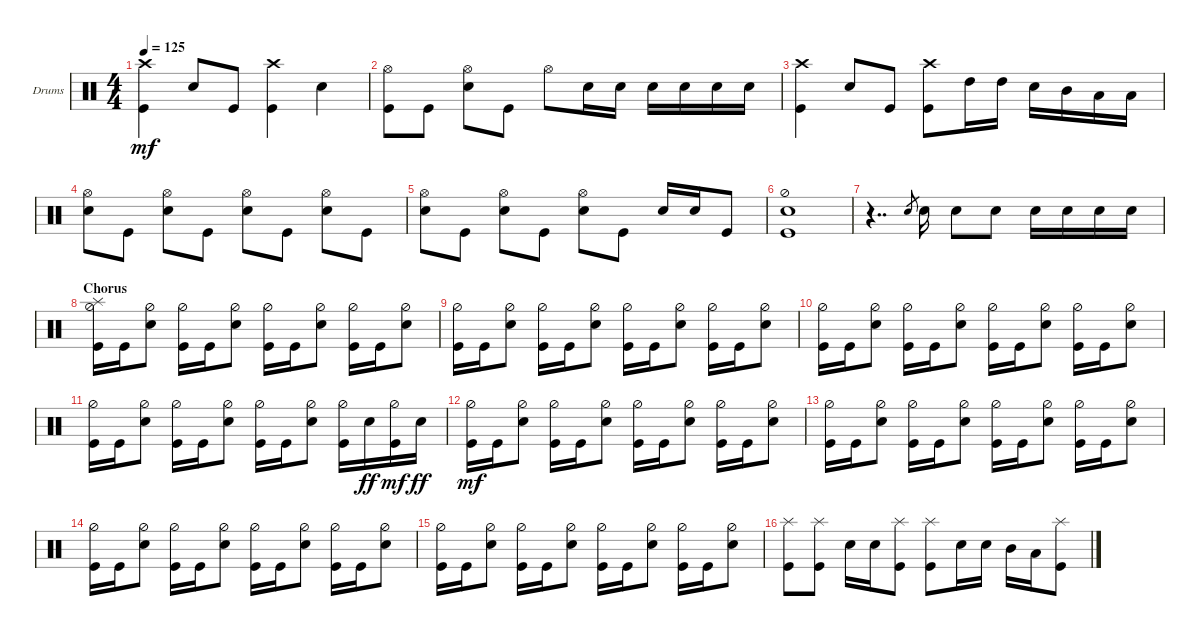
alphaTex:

\defaultSystemsLayout 4
\bracketExtendMode groupsimilarinstruments
\firstSystemTrackNameOrientation horizontal
\otherSystemsTrackNameOrientation horizontal
\track ("Drumkit" "Drums") {instrument percussion}
\staff {score}
\articulation defaults
\ts (4 4)
\tempo 125
\clef neutral
\ks c
("Kick (hit)" "Crash high (hit)").4{dy mf} "Snare (hit) 2".8 "Kick (hit)".8 ("Kick (hit)" "Crash high (hit)").4 "Snare (hit) 2".4 |
("Kick (hit)" "Hi-Hat (open)").8 "Kick (hit)".8 ("Snare (hit) 2" "Hi-Hat (open)").8 "Kick (hit)".8 "Hi-Hat (open)".8 "Snare (hit) 2".16 "Snare (hit) 2".16 "Snare (hit) 2".16 "Snare (hit) 2".16 "Snare (hit) 2".16 "Snare (hit) 2".16 |
("Kick (hit)" "Crash high (hit)").4 "Snare (hit) 2".8 "Kick (hit)".8 ("Kick (hit)" "Crash high (hit)").8 "High Tom (hit)".16 "High Tom (hit)".16 "Snare (hit) 2".16 "Mid Tom (hit)".16 "Low Tom (hit)".16 "Low Tom (hit)".16 |
("Snare (hit) 2" "Hi-Hat (open)").8 "Kick (hit)".8 ("Snare (hit) 2" "Hi-Hat (open)").8 "Kick (hit)".8 ("Snare (hit) 2" "Hi-Hat (open)").8 "Kick (hit)".8 ("Snare (hit) 2" "Hi-Hat (open)").8 "Kick (hit)".8 |
("Snare (hit) 2" "Hi-Hat (open)").8 "Kick (hit)".8 ("Snare (hit) 2" "Hi-Hat (open)").8 "Kick (hit)".8 ("Snare (hit) 2" "Hi-Hat (open)").8 "Kick (hit)".8 "Snare (hit) 2".16 "Snare (hit) 2".16 "Kick (hit)".8 |
("Snare (hit) 2" "Kick (hit)" "Hi-Hat (half)").1 |
r.4{dd} "Snare (hit) 2".8{gr} "Snare (hit) 2".16 "Snare (hit) 2".8 "Snare (hit) 2".8 "Snare (hit) 2".16 "Snare (hit) 2".16 "Snare (hit) 2".16 "Snare (hit) 2".16 |
\section ("" "Chorus")
("Hi-Hat (half)" "Kick (hit)" "Splash (hit)").16 "Kick (hit)".16 ("Hi-Hat (half)" "Snare (hit) 2").8 ("Hi-Hat (half)" "Kick (hit)").16 "Kick (hit)".16 ("Hi-Hat (half)" "Snare (hit) 2").8 ("Hi-Hat (half)" "Kick (hit)").16 "Kick (hit)".16 ("Hi-Hat (half)" "Snare (hit) 2").8 ("Hi-Hat (half)" "Kick (hit)").16 "Kick (hit)".16 ("Hi-Hat (half)" "Snare (hit) 2").8 |
("Hi-Hat (half)" "Kick (hit)").16 "Kick (hit)".16 ("Hi-Hat (half)" "Snare (hit) 2").8 ("Hi-Hat (half)" "Kick (hit)").16 "Kick (hit)".16 ("Hi-Hat (half)" "Snare (hit) 2").8 ("Hi-Hat (half)" "Kick (hit)").16 "Kick (hit)".16 ("Hi-Hat (half)" "Snare (hit) 2").8 ("Hi-Hat (half)" "Kick (hit)").16 "Kick (hit)".16 ("Hi-Hat (half)" "Snare (hit) 2").8 |
("Hi-Hat (half)" "Kick (hit)").16 "Kick (hit)".16 ("Hi-Hat (half)" "Snare (hit) 2").8 ("Hi-Hat (half)" "Kick (hit)").16 "Kick (hit)".16 ("Hi-Hat (half)" "Snare (hit) 2").8 ("Hi-Hat (half)" "Kick (hit)").16 "Kick (hit)".16 ("Hi-Hat (half)" "Snare (hit) 2").8 ("Hi-Hat (half)" "Kick (hit)").16 "Kick (hit)".16 ("Hi-Hat (half)" "Snare (hit) 2").8 |
("Hi-Hat (half)" "Kick (hit)").16 "Kick (hit)".16 ("Hi-Hat (half)" "Snare (hit) 2").8 ("Hi-Hat (half)" "Kick (hit)").16 "Kick (hit)".16 ("Hi-Hat (half)" "Snare (hit) 2").8 ("Hi-Hat (half)" "Kick (hit)").16 "Kick (hit)".16 ("Hi-Hat (half)" "Snare (hit) 2").8 ("Hi-Hat (half)" "Kick (hit)").16 "Snare (hit) 2".16{dy ff} ("Hi-Hat (half)" "Kick (hit)").16{dy mf} "Snare (hit) 2".16{dy ff} |
("Hi-Hat (half)" "Kick (hit)").16{dy mf} "Kick (hit)".16 ("Hi-Hat (half)" "Snare (hit) 2").8 ("Hi-Hat (half)" "Kick (hit)").16 "Kick (hit)".16 ("Hi-Hat (half)" "Snare (hit) 2").8 ("Hi-Hat (half)" "Kick (hit)").16 "Kick (hit)".16 ("Hi-Hat (half)" "Snare (hit) 2").8 ("Hi-Hat (half)" "Kick (hit)").16 "Kick (hit)".16 ("Hi-Hat (half)" "Snare (hit) 2").8 |
("Hi-Hat (half)" "Kick (hit)").16 "Kick (hit)".16 ("Hi-Hat (half)" "Snare (hit) 2").8 ("Hi-Hat (half)" "Kick (hit)").16 "Kick (hit)".16 ("Hi-Hat (half)" "Snare (hit) 2").8 ("Hi-Hat (half)" "Kick (hit)").16 "Kick (hit)".16 ("Hi-Hat (half)" "Snare (hit) 2").8 ("Hi-Hat (half)" "Kick (hit)").16 "Kick (hit)".16 ("Hi-Hat (half)" "Snare (hit) 2").8 |
("Hi-Hat (half)" "Kick (hit)").16 "Kick (hit)".16 ("Hi-Hat (half)" "Snare (hit) 2").8 ("Hi-Hat (half)" "Kick (hit)").16 "Kick (hit)".16 ("Hi-Hat (half)" "Snare (hit) 2").8 ("Hi-Hat (half)" "Kick (hit)").16 "Kick (hit)".16 ("Hi-Hat (half)" "Snare (hit) 2").8 ("Hi-Hat (half)" "Kick (hit)").16 "Kick (hit)".16 ("Hi-Hat (half)" "Snare (hit) 2").8 |
("Hi-Hat (half)" "Kick (hit)").16 "Kick (hit)".16 ("Hi-Hat (half)" "Snare (hit) 2").8 ("Hi-Hat (half)" "Kick (hit)").16 "Kick (hit)".16 ("Hi-Hat (half)" "Snare (hit) 2").8 ("Hi-Hat (half)" "Kick (hit)").16 "Kick (hit)".16 ("Hi-Hat (half)" "Snare (hit) 2").8 ("Hi-Hat (half)" "Kick (hit)").16 "Kick (hit)".16 ("Hi-Hat (half)" "Snare (hit) 2").8 |
("Kick (hit)" "Splash (hit)").8 ("Kick (hit)" "Splash (hit)").8 "Snare (hit) 2".16 "Snare (hit) 2".16 ("Kick (hit)" "Splash (hit)").8 ("Kick (hit)" "Splash (hit)").8 "Snare (hit) 2".16 "Snare (hit) 2".16 "Mid Tom (hit)".16 "Low Tom (hit)".16 ("Kick (hit)" "Splash (hit)").8
